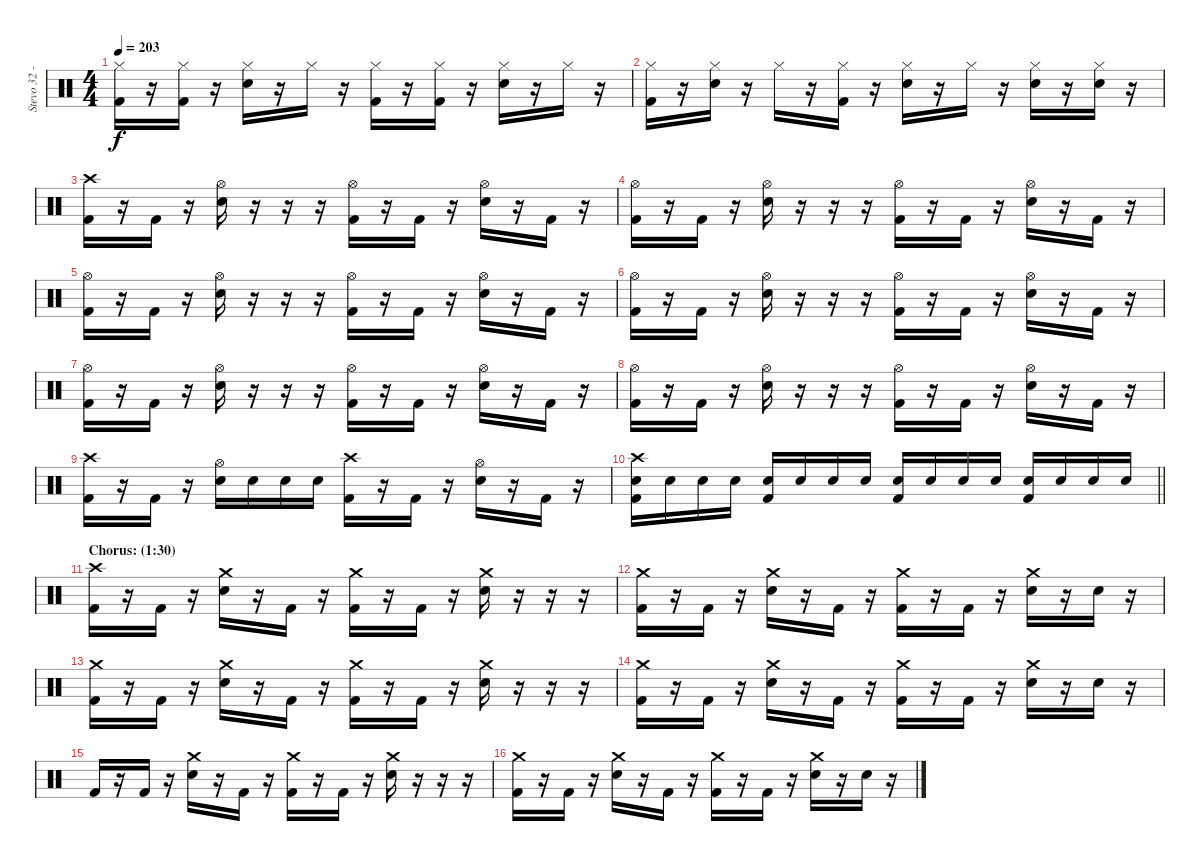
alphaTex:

\track ("Stevo 32 - Drums" "Stevo 32 -") {instrument percussion}
\staff {score}
\articulation defaults
\ts (4 4)
\tempo 203
\clef neutral
\ks c
("Hi-Hat (closed)" "Kick (hit) 2").16{dy f} r.16 ("Hi-Hat (closed)" "Kick (hit) 2").16 r.16 ("Hi-Hat (closed)" "Snare (hit) 2").16 r.16 "Hi-Hat (closed)".16 r.16 ("Hi-Hat (closed)" "Kick (hit) 2").16 r.16 ("Hi-Hat (closed)" "Kick (hit) 2").16 r.16 ("Hi-Hat (closed)" "Snare (hit) 2").16 r.16 "Hi-Hat (closed)".16 r.16 |
("Hi-Hat (closed)" "Kick (hit) 2").16 r.16 ("Hi-Hat (closed)" "Snare (hit) 2").16 r.16 "Hi-Hat (closed)".16 r.16 ("Hi-Hat (closed)" "Kick (hit) 2").16 r.16 ("Hi-Hat (closed)" "Snare (hit) 2").16 r.16 "Hi-Hat (closed)".16 r.16 ("Hi-Hat (closed)" "Snare (hit) 2").16 r.16 ("Hi-Hat (closed)" "Snare (hit) 2").16 r.16 |
("Crash high (hit)" "Kick (hit) 2").16 r.16 "Kick (hit) 2".16 r.16 ("Hi-Hat (open)" "Snare (hit) 2").16 r.16 r.16 r.16 ("Hi-Hat (open)" "Kick (hit) 2").16 r.16 "Kick (hit) 2".16 r.16 ("Hi-Hat (open)" "Snare (hit) 2").16 r.16 "Kick (hit) 2".16 r.16 |
("Hi-Hat (open)" "Kick (hit) 2").16 r.16 "Kick (hit) 2".16 r.16 ("Hi-Hat (open)" "Snare (hit) 2").16 r.16 r.16 r.16 ("Hi-Hat (open)" "Kick (hit) 2").16 r.16 "Kick (hit) 2".16 r.16 ("Hi-Hat (open)" "Snare (hit) 2").16 r.16 "Kick (hit) 2".16 r.16 |
("Hi-Hat (open)" "Kick (hit) 2").16 r.16 "Kick (hit) 2".16 r.16 ("Hi-Hat (open)" "Snare (hit) 2").16 r.16 r.16 r.16 ("Hi-Hat (open)" "Kick (hit) 2").16 r.16 "Kick (hit) 2".16 r.16 ("Hi-Hat (open)" "Snare (hit) 2").16 r.16 "Kick (hit) 2".16 r.16 |
("Hi-Hat (open)" "Kick (hit) 2").16 r.16 "Kick (hit) 2".16 r.16 ("Hi-Hat (open)" "Snare (hit) 2").16 r.16 r.16 r.16 ("Hi-Hat (open)" "Kick (hit) 2").16 r.16 "Kick (hit) 2".16 r.16 ("Hi-Hat (open)" "Snare (hit) 2").16 r.16 "Kick (hit) 2".16 r.16 |
("Hi-Hat (open)" "Kick (hit) 2").16 r.16 "Kick (hit) 2".16 r.16 ("Hi-Hat (open)" "Snare (hit) 2").16 r.16 r.16 r.16 ("Hi-Hat (open)" "Kick (hit) 2").16 r.16 "Kick (hit) 2".16 r.16 ("Hi-Hat (open)" "Snare (hit) 2").16 r.16 "Kick (hit) 2".16 r.16 |
("Hi-Hat (open)" "Kick (hit) 2").16 r.16 "Kick (hit) 2".16 r.16 ("Hi-Hat (open)" "Snare (hit) 2").16 r.16 r.16 r.16 ("Hi-Hat (open)" "Kick (hit) 2").16 r.16 "Kick (hit) 2".16 r.16 ("Hi-Hat (open)" "Snare (hit) 2").16 r.16 "Kick (hit) 2".16 r.16 |
("Crash high (hit)" "Kick (hit) 2").16 r.16 "Kick (hit) 2".16 r.16 ("Hi-Hat (open)" "Snare (hit) 2").16 "Snare (hit) 2".16 "Snare (hit) 2".16 "Snare (hit) 2".16 ("Crash high (hit)" "Kick (hit) 2").16 r.16 "Kick (hit) 2".16 r.16 ("Hi-Hat (open)" "Snare (hit) 2").16 r.16 "Kick (hit) 2".16 r.16 |
\barLineRight lightlight
("Crash high (hit)" "Snare (hit) 2" "Kick (hit) 2").16 "Snare (hit) 2".16 "Snare (hit) 2".16 "Snare (hit) 2".16 ("Snare (hit) 2" "Kick (hit) 2").16 "Snare (hit) 2".16 "Snare (hit) 2".16 "Snare (hit) 2".16 ("Snare (hit) 2" "Kick (hit) 2").16 "Snare (hit) 2".16 "Snare (hit) 2".16 "Snare (hit) 2".16 ("Snare (hit) 2" "Kick (hit) 2").16 "Snare (hit) 2".16 "Snare (hit) 2".16 "Snare (hit) 2".16 |
\section ("" "Chorus: (1:30)")
("Crash high (hit)" "Kick (hit) 2").16 r.16 "Kick (hit) 2".16 r.16 ("Crash medium (hit)" "Snare (hit) 2").16 r.16 "Kick (hit) 2".16 r.16 ("Crash medium (hit)" "Kick (hit) 2").16 r.16 "Kick (hit) 2".16 r.16 ("Crash medium (hit)" "Snare (hit) 2").16 r.16 r.16 r.16 |
("Crash medium (hit)" "Kick (hit) 2").16 r.16 "Kick (hit) 2".16 r.16 ("Crash medium (hit)" "Snare (hit) 2").16 r.16 "Kick (hit) 2".16 r.16 ("Crash medium (hit)" "Kick (hit) 2").16 r.16 "Kick (hit) 2".16 r.16 ("Crash medium (hit)" "Snare (hit) 2").16 r.16 "Snare (hit) 2".16 r.16 |
("Crash medium (hit)" "Kick (hit) 2").16 r.16 "Kick (hit) 2".16 r.16 ("Crash medium (hit)" "Snare (hit) 2").16 r.16 "Kick (hit) 2".16 r.16 ("Crash medium (hit)" "Kick (hit) 2").16 r.16 "Kick (hit) 2".16 r.16 ("Crash medium (hit)" "Snare (hit) 2").16 r.16 r.16 r.16 |
("Crash medium (hit)" "Kick (hit) 2").16 r.16 "Kick (hit) 2".16 r.16 ("Crash medium (hit)" "Snare (hit) 2").16 r.16 "Kick (hit) 2".16 r.16 ("Crash medium (hit)" "Kick (hit) 2").16 r.16 "Kick (hit) 2".16 r.16 ("Crash medium (hit)" "Snare (hit) 2").16 r.16 "Snare (hit) 2".16 r.16 |
"Kick (hit) 2".16 r.16 "Kick (hit) 2".16 r.16 ("Crash medium (hit)" "Snare (hit) 2").16 r.16 "Kick (hit) 2".16 r.16 ("Crash medium (hit)" "Kick (hit) 2").16 r.16 "Kick (hit) 2".16 r.16 ("Crash medium (hit)" "Snare (hit) 2").16 r.16 r.16 r.16 |
("Crash medium (hit)" "Kick (hit) 2").16 r.16 "Kick (hit) 2".16 r.16 ("Crash medium (hit)" "Snare (hit) 2").16 r.16 "Kick (hit) 2".16 r.16 ("Crash medium (hit)" "Kick (hit) 2").16 r.16 "Kick (hit) 2".16 r.16 ("Crash medium (hit)" "Snare (hit) 2").16 r.16 "Snare (hit) 2".16 r.16
